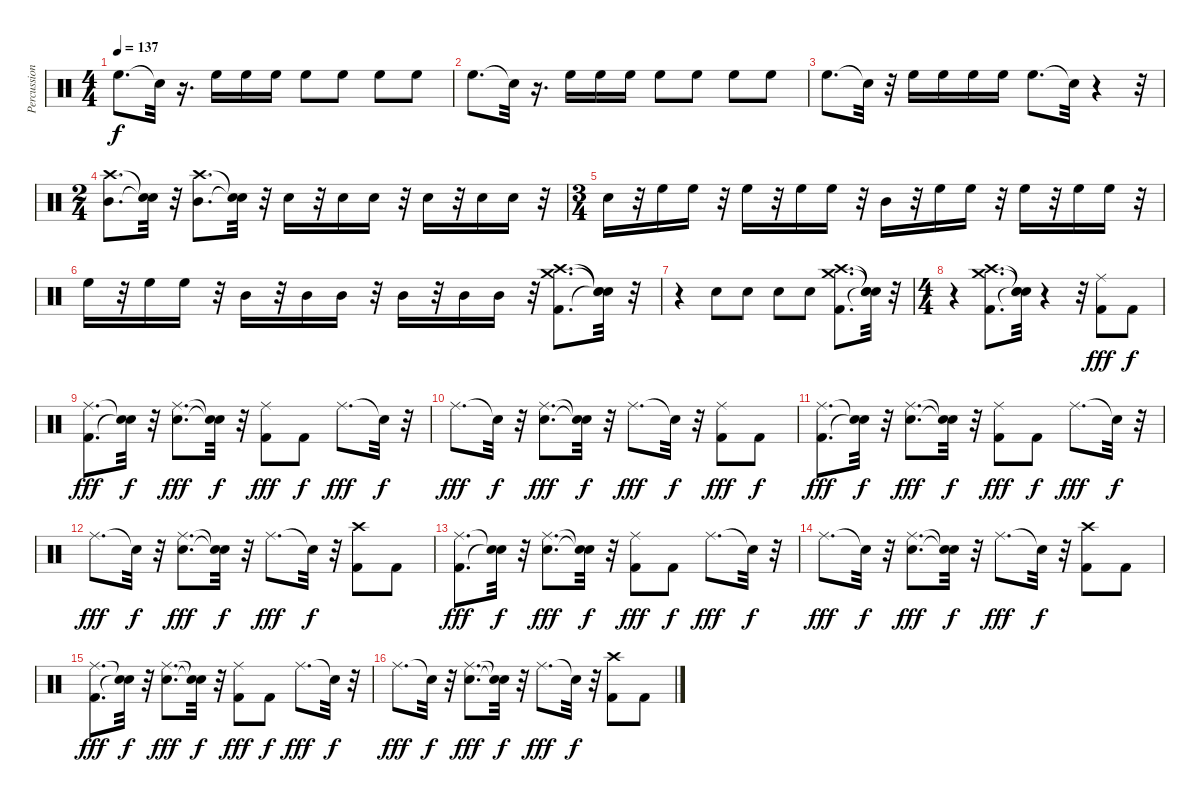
\track ("Percussion" "Percussion") {instrument percussion}
\staff {score}
\articulation defaults
\ts (4 4)
\tempo 137
\clef neutral
\ks c "High Floor Tom (hit)".8{d dy f} "Snare (hit)"{t}.32
r.16{d} "High Floor Tom (hit)".16 "High Floor Tom (hit)".16 "High Floor Tom (hit)".16 "High Floor Tom (hit)".8 "High Floor Tom (hit)".8 "High Floor Tom (hit)".8 "High Floor Tom (hit)".8 |
"High Floor Tom (hit)".8{d} "Snare (hit)"{t}.32 r.16{d} "High Floor Tom (hit)".16 "High Floor Tom (hit)".16 "High Floor Tom (hit)".16 "High Floor Tom (hit)".8 "High Floor Tom (hit)".8 "High Floor Tom (hit)".8 "High Floor Tom (hit)".8 |
"High Floor Tom (hit)".8{d} "Snare (hit)"{t}.32 r.32 "High Floor Tom (hit)".16 "High Floor Tom (hit)".16 "High Floor Tom (hit)".16 "High Floor Tom (hit)".16 "High Floor Tom (hit)".8{d} "Snare (hit)"{t}.32 r.4 r.32 |
\ts (2 4)
("Mid Tom (hit)" "Crash high (hit)").8{d} ("Snare (hit)"{t} "Snare (hit)"{t}).32 r.32 ("Mid Tom (hit)" "Crash high (hit)").8{d} ("Snare (hit)"{t} "Snare (hit)"{t}).32 r.32 "Snare (hit) 2".16 r.32 "Snare (hit) 2".16 "Snare (hit) 2".16 r.32 "Snare (hit) 2".16 r.32 "Snare (hit) 2".16 "Snare (hit) 2".16 r.32 |
\ts (3 4)
"Snare (hit) 2".16 r.32 "High Floor Tom (hit)".16 "High Floor Tom (hit)".16 r.32 "High Floor Tom (hit)".16 r.32 "High Floor Tom (hit)".16 "High Floor Tom (hit)".16 r.32 "Mid Tom (hit)".16 r.32 "High Floor Tom (hit)".16 "High Floor Tom (hit)".16 r.32 "High Floor Tom (hit)".16 r.32 "High Floor Tom (hit)".16 "High Floor Tom (hit)".16 r.32 |
"High Floor Tom (hit)".16 r.32 "High Floor Tom (hit)".16 "High Floor Tom (hit)".16 r.32 "Mid Tom (hit)".16 r.32 "Mid Tom (hit)".16 "Mid Tom (hit)".16 r.32 "Mid Tom (hit)".16 r.32 "Mid Tom (hit)".16 "Mid Tom (hit)".16 r.32 ("Kick (hit) 2" "Crash high (hit)" "Crash medium (hit)").8{d} ("Snare (hit)"{t} "Snare (hit)"{t} "Snare (hit)"{t}).32 r.32 |
r.4 "Snare (hit) 2".8 "Snare (hit) 2".8 "Snare (hit) 2".8 "Snare (hit) 2".8 ("Kick (hit) 2" "Crash high (hit)" "Crash medium (hit)").8{d} ("Snare (hit)"{t} "Snare (hit)"{t} "Snare (hit)"{t}).32 r.32 |
\ts (4 4)
r.4 ("Kick (hit) 2" "Crash high (hit)" "Crash medium (hit)").8{d} ("Snare (hit)"{t} "Snare (hit)"{t} "Snare (hit)"{t}).32 r.4 r.32 ("Ride (middle)" "Kick (hit) 2").8{dy fff} "Kick (hit) 2".8{dy f} |
("Ride (middle)" "Kick (hit) 2").8{d dy fff} ("Snare (hit)"{t} "Snare (hit)"{t}).32{dy f} r.32 ("Ride (middle)" "Snare (hit) 2").8{d dy fff} ("Snare (hit)"{t} "Snare (hit)"{t}).32{dy f} r.32 ("Ride (middle)" "Kick (hit) 2").8{dy fff} "Kick (hit) 2".8{dy f} "Ride (middle)".8{d dy fff} "Snare (hit)"{t}.32{dy f} r.32 |
"Ride (middle)".8{d dy fff} "Snare (hit)"{t}.32{dy f} r.32 ("Ride (middle)" "Snare (hit) 2").8{d dy fff} ("Snare (hit)"{t} "Snare (hit)"{t}).32{dy f} r.32 "Ride (middle)".8{d dy fff} "Snare (hit)"{t}.32{dy f} r.32 ("Ride (middle)" "Kick (hit) 2").8{dy fff} "Kick (hit) 2".8{dy f} |
("Ride (middle)" "Kick (hit) 2").8{d dy fff} ("Snare (hit)"{t} "Snare (hit)"{t}).32{dy f} r.32 ("Ride (middle)" "Snare (hit) 2").8{d dy fff} ("Snare (hit)"{t} "Snare (hit)"{t}).32{dy f} r.32 ("Ride (middle)" "Kick (hit) 2").8{dy fff} "Kick (hit) 2".8{dy f} "Ride (middle)".8{d dy fff} "Snare (hit)"{t}.32{dy f} r.32 |
"Ride (middle)".8{d dy fff} "Snare (hit)"{t}.32{dy f} r.32 ("Ride (middle)" "Snare (hit) 2").8{d dy fff} ("Snare (hit)"{t} "Snare (hit)"{t}).32{dy f} r.32 "Ride (middle)".8{d dy fff} "Snare (hit)"{t}.32{dy f} r.32 ("Crash high (hit)" "Kick (hit) 2").8 "Kick (hit) 2".8 |
("Ride (middle)" "Kick (hit) 2").8{d dy fff} ("Snare (hit)"{t} "Snare (hit)"{t}).32{dy f} r.32 ("Ride (middle)" "Snare (hit) 2").8{d dy fff} ("Snare (hit)"{t} "Snare (hit)"{t}).32{dy f} r.32 ("Ride (middle)" "Kick (hit) 2").8{dy fff} "Kick (hit) 2".8{dy f} "Ride (middle)".8{d dy fff} "Snare (hit)"{t}.32{dy f} r.32 |
"Ride (middle)".8{d dy fff} "Snare (hit)"{t}.32{dy f} r.32 ("Ride (middle)" "Snare (hit) 2").8{d dy fff} ("Snare (hit)"{t} "Snare (hit)"{t}).32{dy f} r.32 "Ride (middle)".8{d dy fff} "Snare (hit)"{t}.32{dy f} r.32 ("Crash high (hit)" "Kick (hit) 2").8 "Kick (hit) 2".8 |
("Ride (middle)" "Kick (hit) 2").8{d dy fff} ("Snare (hit)"{t} "Snare (hit)"{t}).32{dy f} r.32 ("Ride (middle)" "Snare (hit) 2").8{d dy fff} ("Snare (hit)"{t} "Snare (hit)"{t}).32{dy f} r.32 ("Ride (middle)" "Kick (hit) 2").8{dy fff} "Kick (hit) 2".8{dy f} "Ride (middle)".8{d dy fff} "Snare (hit)"{t}.32{dy f} r.32 |
"Ride (middle)".8{d dy fff} "Snare (hit)"{t}.32{dy f} r.32 ("Ride (middle)" "Snare (hit) 2").8{d dy fff} ("Snare (hit)"{t} "Snare (hit)"{t}).32{dy f} r.32 "Ride (middle)".8{d dy fff} "Snare (hit)"{t}.32{dy f} r.32 ("Crash high (hit)" "Kick (hit) 2").8 "Kick (hit) 2".8
